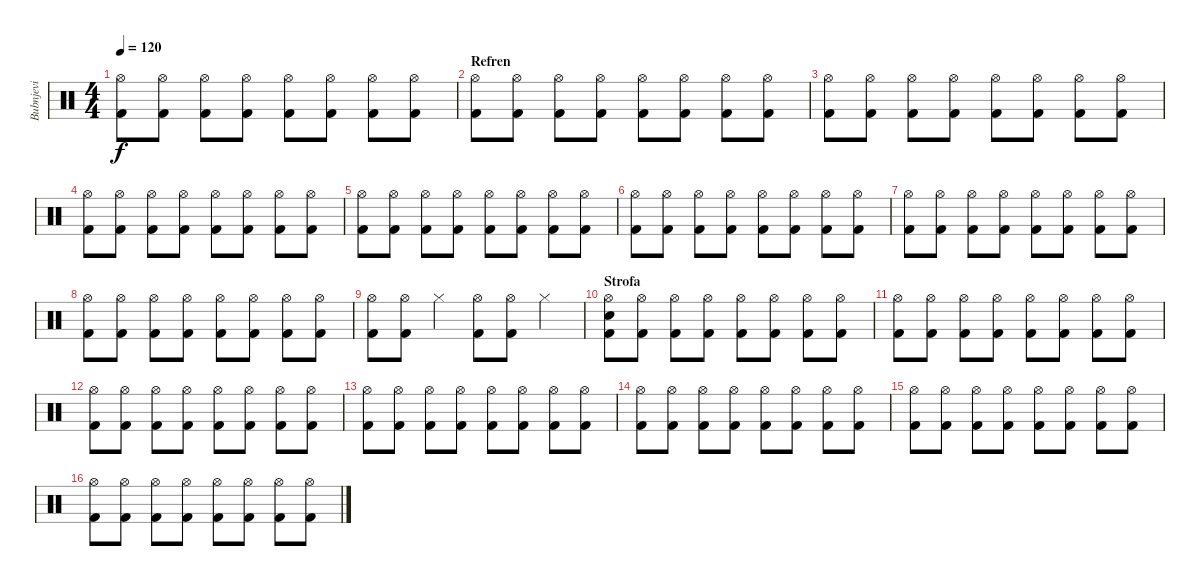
\track ("Bubnjevi" "Bubnjevi") {instrument percussion}
\staff {score}
\articulation defaults
\ts (4 4)
\tempo 120
\clef neutral
\ks c
("Hi-Hat (open)" "Kick (hit) 2").8{dy f} ("Hi-Hat (open)" "Kick (hit) 2").8 ("Hi-Hat (open)" "Kick (hit) 2").8 ("Hi-Hat (open)" "Kick (hit) 2").8 ("Hi-Hat (open)" "Kick (hit) 2").8 ("Hi-Hat (open)" "Kick (hit) 2").8 ("Hi-Hat (open)" "Kick (hit) 2").8 ("Hi-Hat (open)" "Kick (hit) 2").8 |
\section ("" "Refren")
("Hi-Hat (open)" "Kick (hit) 2").8 ("Hi-Hat (open)" "Kick (hit) 2").8 ("Hi-Hat (open)" "Kick (hit) 2").8 ("Hi-Hat (open)" "Kick (hit) 2").8 ("Hi-Hat (open)" "Kick (hit) 2").8 ("Hi-Hat (open)" "Kick (hit) 2").8 ("Hi-Hat (open)" "Kick (hit) 2").8 ("Hi-Hat (open)" "Kick (hit) 2").8 |
("Hi-Hat (open)" "Kick (hit) 2").8 ("Hi-Hat (open)" "Kick (hit) 2").8 ("Hi-Hat (open)" "Kick (hit) 2").8 ("Hi-Hat (open)" "Kick (hit) 2").8 ("Hi-Hat (open)" "Kick (hit) 2").8 ("Hi-Hat (open)" "Kick (hit) 2").8 ("Hi-Hat (open)" "Kick (hit) 2").8 ("Hi-Hat (open)" "Kick (hit) 2").8 |
("Hi-Hat (open)" "Kick (hit) 2").8 ("Hi-Hat (open)" "Kick (hit) 2").8 ("Hi-Hat (open)" "Kick (hit) 2").8 ("Hi-Hat (open)" "Kick (hit) 2").8 ("Hi-Hat (open)" "Kick (hit) 2").8 ("Hi-Hat (open)" "Kick (hit) 2").8 ("Hi-Hat (open)" "Kick (hit) 2").8 ("Hi-Hat (open)" "Kick (hit) 2").8 |
("Hi-Hat (open)" "Kick (hit) 2").8 ("Hi-Hat (open)" "Kick (hit) 2").8 ("Hi-Hat (open)" "Kick (hit) 2").8 ("Hi-Hat (open)" "Kick (hit) 2").8 ("Hi-Hat (open)" "Kick (hit) 2").8 ("Hi-Hat (open)" "Kick (hit) 2").8 ("Hi-Hat (open)" "Kick (hit) 2").8 ("Hi-Hat (open)" "Kick (hit) 2").8 |
("Hi-Hat (open)" "Kick (hit) 2").8 ("Hi-Hat (open)" "Kick (hit) 2").8 ("Hi-Hat (open)" "Kick (hit) 2").8 ("Hi-Hat (open)" "Kick (hit) 2").8 ("Hi-Hat (open)" "Kick (hit) 2").8 ("Hi-Hat (open)" "Kick (hit) 2").8 ("Hi-Hat (open)" "Kick (hit) 2").8 ("Hi-Hat (open)" "Kick (hit) 2").8 |
("Hi-Hat (open)" "Kick (hit) 2").8 ("Hi-Hat (open)" "Kick (hit) 2").8 ("Hi-Hat (open)" "Kick (hit) 2").8 ("Hi-Hat (open)" "Kick (hit) 2").8 ("Hi-Hat (open)" "Kick (hit) 2").8 ("Hi-Hat (open)" "Kick (hit) 2").8 ("Hi-Hat (open)" "Kick (hit) 2").8 ("Hi-Hat (open)" "Kick (hit) 2").8 |
("Hi-Hat (open)" "Kick (hit) 2").8 ("Hi-Hat (open)" "Kick (hit) 2").8 ("Hi-Hat (open)" "Kick (hit) 2").8 ("Hi-Hat (open)" "Kick (hit) 2").8 ("Hi-Hat (open)" "Kick (hit) 2").8 ("Hi-Hat (open)" "Kick (hit) 2").8 ("Hi-Hat (open)" "Kick (hit) 2").8 ("Hi-Hat (open)" "Kick (hit) 2").8 |
("Hi-Hat (open)" "Kick (hit) 2").8 ("Hi-Hat (open)" "Kick (hit) 2").8 "Hi-Hat (closed)".4 ("Kick (hit) 2" "Hi-Hat (open)").8 ("Hi-Hat (open)" "Kick (hit) 2").8 "Hi-Hat (closed)".4 |
\section ("" "Strofa")
("Hi-Hat (open)" "Kick (hit) 2" "Electric Snare (hit)").8 ("Hi-Hat (open)" "Kick (hit) 2").8 ("Hi-Hat (open)" "Kick (hit) 2").8 ("Hi-Hat (open)" "Kick (hit) 2").8 ("Hi-Hat (open)" "Kick (hit) 2").8 ("Hi-Hat (open)" "Kick (hit) 2").8 ("Hi-Hat (open)" "Kick (hit) 2").8 ("Hi-Hat (open)" "Kick (hit) 2").8 |
("Hi-Hat (open)" "Kick (hit) 2").8 ("Hi-Hat (open)" "Kick (hit) 2").8 ("Hi-Hat (open)" "Kick (hit) 2").8 ("Hi-Hat (open)" "Kick (hit) 2").8 ("Hi-Hat (open)" "Kick (hit) 2").8 ("Hi-Hat (open)" "Kick (hit) 2").8 ("Hi-Hat (open)" "Kick (hit) 2").8 ("Hi-Hat (open)" "Kick (hit) 2").8 |
("Hi-Hat (open)" "Kick (hit) 2").8 ("Hi-Hat (open)" "Kick (hit) 2").8 ("Hi-Hat (open)" "Kick (hit) 2").8 ("Hi-Hat (open)" "Kick (hit) 2").8 ("Hi-Hat (open)" "Kick (hit) 2").8 ("Hi-Hat (open)" "Kick (hit) 2").8 ("Hi-Hat (open)" "Kick (hit) 2").8 ("Hi-Hat (open)" "Kick (hit) 2").8 |
("Hi-Hat (open)" "Kick (hit) 2").8 ("Hi-Hat (open)" "Kick (hit) 2").8 ("Hi-Hat (open)" "Kick (hit) 2").8 ("Hi-Hat (open)" "Kick (hit) 2").8 ("Hi-Hat (open)" "Kick (hit) 2").8 ("Hi-Hat (open)" "Kick (hit) 2").8 ("Hi-Hat (open)" "Kick (hit) 2").8 ("Hi-Hat (open)" "Kick (hit) 2").8 |
("Hi-Hat (open)" "Kick (hit) 2").8 ("Hi-Hat (open)" "Kick (hit) 2").8 ("Hi-Hat (open)" "Kick (hit) 2").8 ("Hi-Hat (open)" "Kick (hit) 2").8 ("Hi-Hat (open)" "Kick (hit) 2").8 ("Hi-Hat (open)" "Kick (hit) 2").8 ("Hi-Hat (open)" "Kick (hit) 2").8 ("Hi-Hat (open)" "Kick (hit) 2").8 |
("Hi-Hat (open)" "Kick (hit) 2").8 ("Hi-Hat (open)" "Kick (hit) 2").8 ("Hi-Hat (open)" "Kick (hit) 2").8 ("Hi-Hat (open)" "Kick (hit) 2").8 ("Hi-Hat (open)" "Kick (hit) 2").8 ("Hi-Hat (open)" "Kick (hit) 2").8 ("Hi-Hat (open)" "Kick (hit) 2").8 ("Hi-Hat (open)" "Kick (hit) 2").8 |
("Hi-Hat (open)" "Kick (hit) 2").8 ("Hi-Hat (open)" "Kick (hit) 2").8 ("Hi-Hat (open)" "Kick (hit) 2").8 ("Hi-Hat (open)" "Kick (hit) 2").8 ("Hi-Hat (open)" "Kick (hit) 2").8 ("Hi-Hat (open)" "Kick (hit) 2").8 ("Hi-Hat (open)" "Kick (hit) 2").8 ("Hi-Hat (open)" "Kick (hit) 2").8
